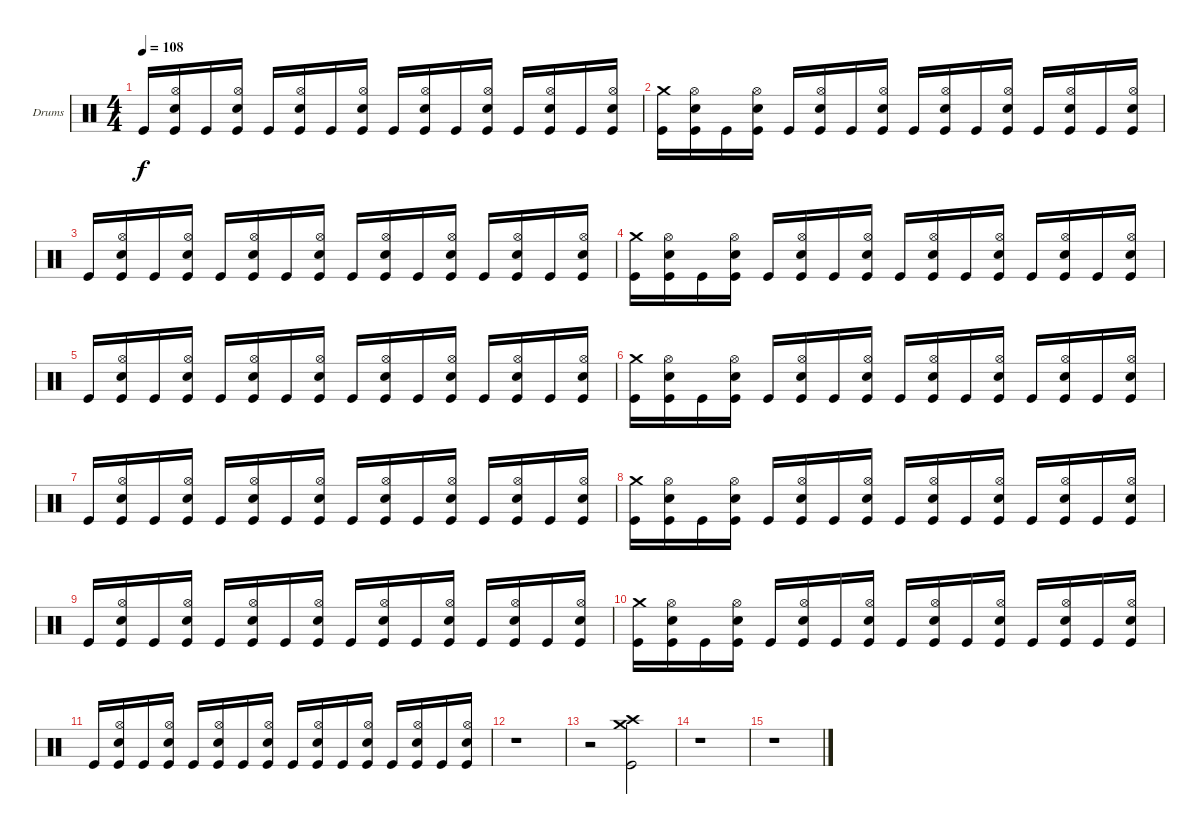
\bracketExtendMode groupsimilarinstruments
\firstSystemTrackNameOrientation horizontal
\otherSystemsTrackNameOrientation horizontal
\track ("Drumkit" "Drums") {instrument percussion}
\staff {score}
\articulation defaults
\ts (4 4)
\tempo 108
\clef neutral
\ks c "Kick (hit)".16{dy f}
("Hi-Hat (open)" "Snare (hit) 2" "Kick (hit)").16 "Kick (hit)".16 ("Hi-Hat (open)" "Snare (hit) 2" "Kick (hit)").16 "Kick (hit)".16 ("Hi-Hat (open)" "Snare (hit) 2" "Kick (hit)").16 "Kick (hit)".16 ("Hi-Hat (open)" "Snare (hit) 2" "Kick (hit)").16 "Kick (hit)".16 ("Hi-Hat (open)" "Snare (hit) 2" "Kick (hit)").16 "Kick (hit)".16 ("Hi-Hat (open)" "Snare (hit) 2" "Kick (hit)").16 "Kick (hit)".16 ("Hi-Hat (open)" "Snare (hit) 2" "Kick (hit)").16 "Kick (hit)".16 ("Hi-Hat (open)" "Snare (hit) 2" "Kick (hit)").16 |
("Crash medium (hit)" "Kick (hit)").16 ("Hi-Hat (open)" "Snare (hit) 2" "Kick (hit)").16 "Kick (hit)".16 ("Hi-Hat (open)" "Snare (hit) 2" "Kick (hit)").16 "Kick (hit)".16 ("Hi-Hat (open)" "Snare (hit) 2" "Kick (hit)").16 "Kick (hit)".16 ("Hi-Hat (open)" "Snare (hit) 2" "Kick (hit)").16 "Kick (hit)".16 ("Hi-Hat (open)" "Snare (hit) 2" "Kick (hit)").16 "Kick (hit)".16 ("Hi-Hat (open)" "Snare (hit) 2" "Kick (hit)").16 "Kick (hit)".16 ("Hi-Hat (open)" "Snare (hit) 2" "Kick (hit)").16 "Kick (hit)".16 ("Hi-Hat (open)" "Snare (hit) 2" "Kick (hit)").16 |
"Kick (hit)".16 ("Hi-Hat (open)" "Snare (hit) 2" "Kick (hit)").16 "Kick (hit)".16 ("Hi-Hat (open)" "Snare (hit) 2" "Kick (hit)").16 "Kick (hit)".16 ("Hi-Hat (open)" "Snare (hit) 2" "Kick (hit)").16 "Kick (hit)".16 ("Hi-Hat (open)" "Snare (hit) 2" "Kick (hit)").16 "Kick (hit)".16 ("Hi-Hat (open)" "Snare (hit) 2" "Kick (hit)").16 "Kick (hit)".16 ("Hi-Hat (open)" "Snare (hit) 2" "Kick (hit)").16 "Kick (hit)".16 ("Hi-Hat (open)" "Snare (hit) 2" "Kick (hit)").16 "Kick (hit)".16 ("Hi-Hat (open)" "Snare (hit) 2" "Kick (hit)").16 |
("Crash medium (hit)" "Kick (hit)").16 ("Hi-Hat (open)" "Snare (hit) 2" "Kick (hit)").16 "Kick (hit)".16 ("Hi-Hat (open)" "Snare (hit) 2" "Kick (hit)").16 "Kick (hit)".16 ("Hi-Hat (open)" "Snare (hit) 2" "Kick (hit)").16 "Kick (hit)".16 ("Hi-Hat (open)" "Snare (hit) 2" "Kick (hit)").16 "Kick (hit)".16 ("Hi-Hat (open)" "Snare (hit) 2" "Kick (hit)").16 "Kick (hit)".16 ("Hi-Hat (open)" "Snare (hit) 2" "Kick (hit)").16 "Kick (hit)".16 ("Hi-Hat (open)" "Snare (hit) 2" "Kick (hit)").16 "Kick (hit)".16 ("Hi-Hat (open)" "Snare (hit) 2" "Kick (hit)").16 |
"Kick (hit)".16 ("Hi-Hat (open)" "Snare (hit) 2" "Kick (hit)").16 "Kick (hit)".16 ("Hi-Hat (open)" "Snare (hit) 2" "Kick (hit)").16 "Kick (hit)".16 ("Hi-Hat (open)" "Snare (hit) 2" "Kick (hit)").16 "Kick (hit)".16 ("Hi-Hat (open)" "Snare (hit) 2" "Kick (hit)").16 "Kick (hit)".16 ("Hi-Hat (open)" "Snare (hit) 2" "Kick (hit)").16 "Kick (hit)".16 ("Hi-Hat (open)" "Snare (hit) 2" "Kick (hit)").16 "Kick (hit)".16 ("Hi-Hat (open)" "Snare (hit) 2" "Kick (hit)").16 "Kick (hit)".16 ("Hi-Hat (open)" "Snare (hit) 2" "Kick (hit)").16 |
("Crash medium (hit)" "Kick (hit)").16 ("Hi-Hat (open)" "Snare (hit) 2" "Kick (hit)").16 "Kick (hit)".16 ("Hi-Hat (open)" "Snare (hit) 2" "Kick (hit)").16 "Kick (hit)".16 ("Hi-Hat (open)" "Snare (hit) 2" "Kick (hit)").16 "Kick (hit)".16 ("Hi-Hat (open)" "Snare (hit) 2" "Kick (hit)").16 "Kick (hit)".16 ("Hi-Hat (open)" "Snare (hit) 2" "Kick (hit)").16 "Kick (hit)".16 ("Hi-Hat (open)" "Snare (hit) 2" "Kick (hit)").16 "Kick (hit)".16 ("Hi-Hat (open)" "Snare (hit) 2" "Kick (hit)").16 "Kick (hit)".16 ("Hi-Hat (open)" "Snare (hit) 2" "Kick (hit)").16 |
"Kick (hit)".16 ("Hi-Hat (open)" "Snare (hit) 2" "Kick (hit)").16 "Kick (hit)".16 ("Hi-Hat (open)" "Snare (hit) 2" "Kick (hit)").16 "Kick (hit)".16 ("Hi-Hat (open)" "Snare (hit) 2" "Kick (hit)").16 "Kick (hit)".16 ("Hi-Hat (open)" "Snare (hit) 2" "Kick (hit)").16 "Kick (hit)".16 ("Hi-Hat (open)" "Snare (hit) 2" "Kick (hit)").16 "Kick (hit)".16 ("Hi-Hat (open)" "Snare (hit) 2" "Kick (hit)").16 "Kick (hit)".16 ("Hi-Hat (open)" "Snare (hit) 2" "Kick (hit)").16 "Kick (hit)".16 ("Hi-Hat (open)" "Snare (hit) 2" "Kick (hit)").16 |
("Crash medium (hit)" "Kick (hit)").16 ("Hi-Hat (open)" "Snare (hit) 2" "Kick (hit)").16 "Kick (hit)".16 ("Hi-Hat (open)" "Snare (hit) 2" "Kick (hit)").16 "Kick (hit)".16 ("Hi-Hat (open)" "Snare (hit) 2" "Kick (hit)").16 "Kick (hit)".16 ("Hi-Hat (open)" "Snare (hit) 2" "Kick (hit)").16 "Kick (hit)".16 ("Hi-Hat (open)" "Snare (hit) 2" "Kick (hit)").16 "Kick (hit)".16 ("Hi-Hat (open)" "Snare (hit) 2" "Kick (hit)").16 "Kick (hit)".16 ("Hi-Hat (open)" "Snare (hit) 2" "Kick (hit)").16 "Kick (hit)".16 ("Hi-Hat (open)" "Snare (hit) 2" "Kick (hit)").16 |
"Kick (hit)".16 ("Hi-Hat (open)" "Snare (hit) 2" "Kick (hit)").16 "Kick (hit)".16 ("Hi-Hat (open)" "Snare (hit) 2" "Kick (hit)").16 "Kick (hit)".16 ("Hi-Hat (open)" "Snare (hit) 2" "Kick (hit)").16 "Kick (hit)".16 ("Hi-Hat (open)" "Snare (hit) 2" "Kick (hit)").16 "Kick (hit)".16 ("Hi-Hat (open)" "Snare (hit) 2" "Kick (hit)").16 "Kick (hit)".16 ("Hi-Hat (open)" "Snare (hit) 2" "Kick (hit)").16 "Kick (hit)".16 ("Hi-Hat (open)" "Snare (hit) 2" "Kick (hit)").16 "Kick (hit)".16 ("Hi-Hat (open)" "Snare (hit) 2" "Kick (hit)").16 |
("Crash medium (hit)" "Kick (hit)").16 ("Hi-Hat (open)" "Snare (hit) 2" "Kick (hit)").16 "Kick (hit)".16 ("Hi-Hat (open)" "Snare (hit) 2" "Kick (hit)").16 "Kick (hit)".16 ("Hi-Hat (open)" "Snare (hit) 2" "Kick (hit)").16 "Kick (hit)".16 ("Hi-Hat (open)" "Snare (hit) 2" "Kick (hit)").16 "Kick (hit)".16 ("Hi-Hat (open)" "Snare (hit) 2" "Kick (hit)").16 "Kick (hit)".16 ("Hi-Hat (open)" "Snare (hit) 2" "Kick (hit)").16 "Kick (hit)".16 ("Hi-Hat (open)" "Snare (hit) 2" "Kick (hit)").16 "Kick (hit)".16 ("Hi-Hat (open)" "Snare (hit) 2" "Kick (hit)").16 |
"Kick (hit)".16 ("Hi-Hat (open)" "Snare (hit) 2" "Kick (hit)").16 "Kick (hit)".16 ("Hi-Hat (open)" "Snare (hit) 2" "Kick (hit)").16 "Kick (hit)".16 ("Hi-Hat (open)" "Snare (hit) 2" "Kick (hit)").16 "Kick (hit)".16 ("Hi-Hat (open)" "Snare (hit) 2" "Kick (hit)").16 "Kick (hit)".16 ("Hi-Hat (open)" "Snare (hit) 2" "Kick (hit)").16 "Kick (hit)".16 ("Hi-Hat (open)" "Snare (hit) 2" "Kick (hit)").16 "Kick (hit)".16 ("Hi-Hat (open)" "Snare (hit) 2" "Kick (hit)").16 "Kick (hit)".16 ("Hi-Hat (open)" "Snare (hit) 2" "Kick (hit)").16 |
r.1 |
r.2 ("Crash high (hit)" "Crash medium (hit)" "Kick (hit)").2 |
r.1 |
r.1
